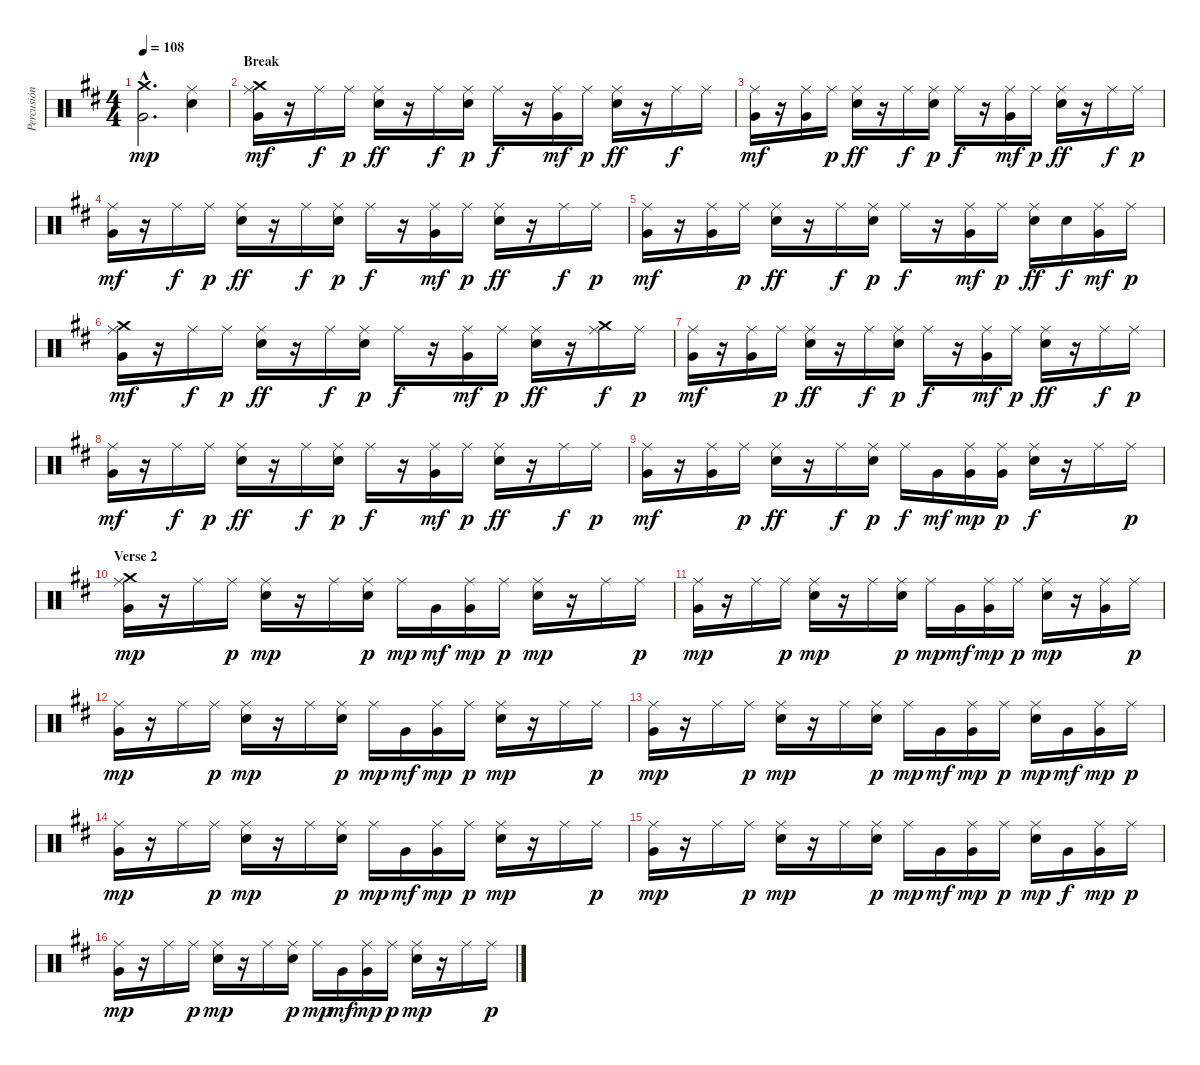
\track ("Percusión" "Percusión") {instrument percussion}
\staff {score}
\articulation defaults
\ts (4 4)
\tempo 108
\clef neutral
\ks bminor
("Crash medium (hit)"{hac} "Very Low Tom (hit)"{hac}).2{d dy mp} ("Electric Snare (hit)" "Ride (middle)").4 |
\section ("" "Break")
("Crash medium (hit)" "Very Low Tom (hit)" "Ride (middle)").16{dy mf} r.16 "Ride (middle)".16{dy f} "Ride (middle)".16{dy p} ("Electric Snare (hit)" "Ride (middle)").16{dy ff} r.16 "Ride (middle)".16{dy f} ("Electric Snare (hit)" "Ride (middle)").16{dy p} "Ride (middle)".16{dy f} r.16 ("Very Low Tom (hit)" "Ride (middle)").16{dy mf} "Ride (middle)".16{dy p} ("Electric Snare (hit)" "Ride (middle)").16{dy ff} r.16 "Ride (middle)".16{dy f} "Ride (middle)".16 |
("Very Low Tom (hit)" "Ride (middle)").16{dy mf} r.16 ("Very Low Tom (hit)" "Ride (middle)").16 "Ride (middle)".16{dy p} ("Electric Snare (hit)" "Ride (middle)").16{dy ff} r.16 "Ride (middle)".16{dy f} ("Electric Snare (hit)" "Ride (middle)").16{dy p} "Ride (middle)".16{dy f} r.16 ("Very Low Tom (hit)" "Ride (middle)").16{dy mf} "Ride (middle)".16{dy p} ("Electric Snare (hit)" "Ride (middle)").16{dy ff} r.16 "Ride (middle)".16{dy f} "Ride (middle)".16{dy p} |
("Very Low Tom (hit)" "Ride (middle)").16{dy mf} r.16 "Ride (middle)".16{dy f} "Ride (middle)".16{dy p} ("Electric Snare (hit)" "Ride (middle)").16{dy ff} r.16 "Ride (middle)".16{dy f} ("Electric Snare (hit)" "Ride (middle)").16{dy p} "Ride (middle)".16{dy f} r.16 ("Very Low Tom (hit)" "Ride (middle)").16{dy mf} "Ride (middle)".16{dy p} ("Electric Snare (hit)" "Ride (middle)").16{dy ff} r.16 "Ride (middle)".16{dy f} "Ride (middle)".16{dy p} |
("Very Low Tom (hit)" "Ride (middle)").16{dy mf} r.16 ("Very Low Tom (hit)" "Ride (middle)").16 "Ride (middle)".16{dy p} ("Electric Snare (hit)" "Ride (middle)").16{dy ff} r.16 "Ride (middle)".16{dy f} ("Electric Snare (hit)" "Ride (middle)").16{dy p} "Ride (middle)".16{dy f} r.16 ("Very Low Tom (hit)" "Ride (middle)").16{dy mf} "Ride (middle)".16{dy p} ("Electric Snare (hit)" "Ride (middle)").16{dy ff} "Electric Snare (hit)".16{dy f} ("Very Low Tom (hit)" "Ride (middle)").16{dy mf} "Ride (middle)".16{dy p} |
("Crash medium (hit)" "Very Low Tom (hit)" "Ride (middle)").16{dy mf} r.16 "Ride (middle)".16{dy f} "Ride (middle)".16{dy p} ("Electric Snare (hit)" "Ride (middle)").16{dy ff} r.16 "Ride (middle)".16{dy f} ("Electric Snare (hit)" "Ride (middle)").16{dy p} "Ride (middle)".16{dy f} r.16 ("Very Low Tom (hit)" "Ride (middle)").16{dy mf} "Ride (middle)".16{dy p} ("Electric Snare (hit)" "Ride (middle)").16{dy ff} r.16 ("Crash medium (hit)" "Ride (middle)").16{dy f} "Ride (middle)".16{dy p} |
("Very Low Tom (hit)" "Ride (middle)").16{dy mf} r.16 ("Very Low Tom (hit)" "Ride (middle)").16 "Ride (middle)".16{dy p} ("Electric Snare (hit)" "Ride (middle)").16{dy ff} r.16 "Ride (middle)".16{dy f} ("Electric Snare (hit)" "Ride (middle)").16{dy p} "Ride (middle)".16{dy f} r.16 ("Very Low Tom (hit)" "Ride (middle)").16{dy mf} "Ride (middle)".16{dy p} ("Electric Snare (hit)" "Ride (middle)").16{dy ff} r.16 "Ride (middle)".16{dy f} "Ride (middle)".16{dy p} |
("Very Low Tom (hit)" "Ride (middle)").16{dy mf} r.16 "Ride (middle)".16{dy f} "Ride (middle)".16{dy p} ("Electric Snare (hit)" "Ride (middle)").16{dy ff} r.16 "Ride (middle)".16{dy f} ("Electric Snare (hit)" "Ride (middle)").16{dy p} "Ride (middle)".16{dy f} r.16 ("Very Low Tom (hit)" "Ride (middle)").16{dy mf} "Ride (middle)".16{dy p} ("Electric Snare (hit)" "Ride (middle)").16{dy ff} r.16 "Ride (middle)".16{dy f} "Ride (middle)".16{dy p} |
("Very Low Tom (hit)" "Ride (middle)").16{dy mf} r.16 ("Very Low Tom (hit)" "Ride (middle)").16 "Ride (middle)".16{dy p} ("Electric Snare (hit)" "Ride (middle)").16{dy ff} r.16 "Ride (middle)".16{dy f} ("Electric Snare (hit)" "Ride (middle)").16{dy p} "Ride (middle)".16{dy f} "Very Low Tom (hit)".16{dy mf} ("Very Low Tom (hit)" "Ride (middle)").16{dy mp} ("Very Low Tom (hit)" "Ride (middle)").16{dy p} ("Electric Snare (hit)" "Ride (middle)").16{dy f} r.16 "Ride (middle)".16 "Ride (middle)".16{dy p} |
\section ("" "Verse 2")
("Crash medium (hit)" "Very Low Tom (hit)" "Ride (middle)").16{dy mp} r.16 "Ride (middle)".16 "Ride (middle)".16{dy p} ("Electric Snare (hit)" "Ride (middle)").16{dy mp} r.16 "Ride (middle)".16 ("Electric Snare (hit)" "Ride (middle)").16{dy p} "Ride (middle)".16{dy mp} "Very Low Tom (hit)".16{dy mf} ("Very Low Tom (hit)" "Ride (middle)").16{dy mp} "Ride (middle)".16{dy p} ("Electric Snare (hit)" "Ride (middle)").16{dy mp} r.16 "Ride (middle)".16 "Ride (middle)".16{dy p} |
("Very Low Tom (hit)" "Ride (middle)").16{dy mp} r.16 "Ride (middle)".16 "Ride (middle)".16{dy p} ("Electric Snare (hit)" "Ride (middle)").16{dy mp} r.16 "Ride (middle)".16 ("Electric Snare (hit)" "Ride (middle)").16{dy p} "Ride (middle)".16{dy mp} "Very Low Tom (hit)".16{dy mf} ("Very Low Tom (hit)" "Ride (middle)").16{dy mp} "Ride (middle)".16{dy p} ("Electric Snare (hit)" "Ride (middle)").16{dy mp} r.16 ("Very Low Tom (hit)" "Ride (middle)").16 "Ride (middle)".16{dy p} |
("Very Low Tom (hit)" "Ride (middle)").16{dy mp} r.16 "Ride (middle)".16 "Ride (middle)".16{dy p} ("Electric Snare (hit)" "Ride (middle)").16{dy mp} r.16 "Ride (middle)".16 ("Electric Snare (hit)" "Ride (middle)").16{dy p} "Ride (middle)".16{dy mp} "Very Low Tom (hit)".16{dy mf} ("Very Low Tom (hit)" "Ride (middle)").16{dy mp} "Ride (middle)".16{dy p} ("Electric Snare (hit)" "Ride (middle)").16{dy mp} r.16 "Ride (middle)".16 "Ride (middle)".16{dy p} |
("Very Low Tom (hit)" "Ride (middle)").16{dy mp} r.16 "Ride (middle)".16 "Ride (middle)".16{dy p} ("Electric Snare (hit)" "Ride (middle)").16{dy mp} r.16 "Ride (middle)".16 ("Electric Snare (hit)" "Ride (middle)").16{dy p} "Ride (middle)".16{dy mp} "Very Low Tom (hit)".16{dy mf} ("Very Low Tom (hit)" "Ride (middle)").16{dy mp} "Ride (middle)".16{dy p} ("Electric Snare (hit)" "Ride (middle)").16{dy mp} "Very Low Tom (hit)".16{dy mf} ("Very Low Tom (hit)" "Ride (middle)").16{dy mp} "Ride (middle)".16{dy p} |
("Very Low Tom (hit)" "Ride (middle)").16{dy mp} r.16 "Ride (middle)".16 "Ride (middle)".16{dy p} ("Electric Snare (hit)" "Ride (middle)").16{dy mp} r.16 "Ride (middle)".16 ("Electric Snare (hit)" "Ride (middle)").16{dy p} "Ride (middle)".16{dy mp} "Very Low Tom (hit)".16{dy mf} ("Very Low Tom (hit)" "Ride (middle)").16{dy mp} "Ride (middle)".16{dy p} ("Electric Snare (hit)" "Ride (middle)").16{dy mp} r.16 "Ride (middle)".16 "Ride (middle)".16{dy p} |
("Very Low Tom (hit)" "Ride (middle)").16{dy mp} r.16 "Ride (middle)".16 "Ride (middle)".16{dy p} ("Electric Snare (hit)" "Ride (middle)").16{dy mp} r.16 "Ride (middle)".16 ("Electric Snare (hit)" "Ride (middle)").16{dy p} "Ride (middle)".16{dy mp} "Very Low Tom (hit)".16{dy mf} ("Very Low Tom (hit)" "Ride (middle)").16{dy mp} "Ride (middle)".16{dy p} ("Electric Snare (hit)" "Ride (middle)").16{dy mp} "Very Low Tom (hit)".16{dy f} ("Very Low Tom (hit)" "Ride (middle)").16{dy mp} "Ride (middle)".16{dy p} |
("Very Low Tom (hit)" "Ride (middle)").16{dy mp} r.16 "Ride (middle)".16 "Ride (middle)".16{dy p} ("Electric Snare (hit)" "Ride (middle)").16{dy mp} r.16 "Ride (middle)".16 ("Electric Snare (hit)" "Ride (middle)").16{dy p} "Ride (middle)".16{dy mp} "Very Low Tom (hit)".16{dy mf} ("Very Low Tom (hit)" "Ride (middle)").16{dy mp} "Ride (middle)".16{dy p} ("Electric Snare (hit)" "Ride (middle)").16{dy mp} r.16 "Ride (middle)".16 "Ride (middle)".16{dy p}
